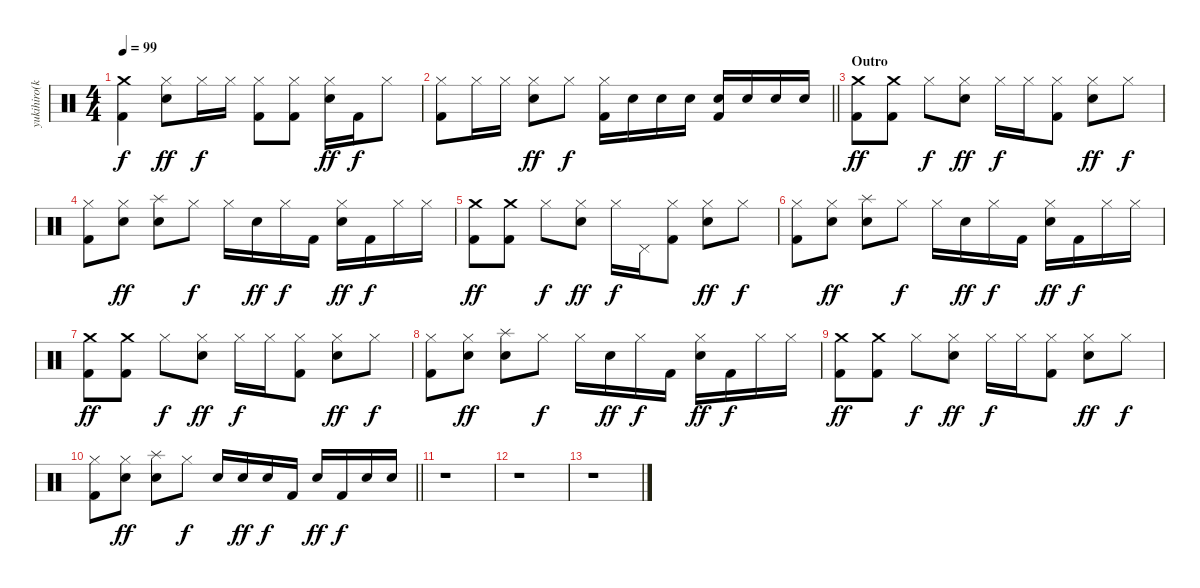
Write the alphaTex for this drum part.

\track ("yukihiro(kami)" "yukihiro(k") {instrument percussion}
\staff {score}
\articulation defaults
\ts (4 4)
\tempo 99
\clef neutral
\ks c
("Crash medium (hit)" "Kick (hit) 2").4{dy f} ("Hi-Hat (closed)" "Snare (hit) 2").8{dy ff} "Hi-Hat (closed)".16{dy f} "Hi-Hat (closed)".16 ("Hi-Hat (closed)" "Kick (hit) 2").8 ("Hi-Hat (closed)" "Kick (hit) 2").8 ("Hi-Hat (closed)" "Snare (hit) 2").16{dy ff} "Kick (hit) 2".16{dy f} "Hi-Hat (closed)".8 |
\barLineRight lightlight
("Hi-Hat (closed)" "Kick (hit) 2").8 "Hi-Hat (closed)".16 "Hi-Hat (closed)".16 ("Hi-Hat (closed)" "Snare (hit) 2").8{dy ff} "Hi-Hat (closed)".8{dy f} ("Hi-Hat (closed)" "Kick (hit) 2").16 "Snare (hit) 2".16 "Snare (hit) 2".16 "Snare (hit) 2".16 ("Snare (hit) 2" "Kick (hit) 2").16 "Snare (hit) 2".16 "Snare (hit) 2".16 "Snare (hit) 2".16 |
\section ("" "Outro")
("Crash medium (hit)" "Kick (hit) 2").8{dy ff} ("Crash medium (hit)" "Kick (hit) 2").8 "Hi-Hat (closed)".8{dy f} ("Hi-Hat (closed)" "Snare (hit) 2").8{dy ff} "Hi-Hat (closed)".16{dy f} "Hi-Hat (closed)".16 ("Hi-Hat (closed)" "Kick (hit) 2").8 ("Hi-Hat (closed)" "Snare (hit) 2").8{dy ff} "Hi-Hat (closed)".8{dy f} |
("Hi-Hat (closed)" "Kick (hit) 2").8 ("Hi-Hat (closed)" "Snare (hit) 2").8{dy ff} ("Splash (hit)" "Snare (hit) 2").8 "Hi-Hat (closed)".8{dy f} "Hi-Hat (closed)".16 "Snare (hit) 2".16{dy ff} "Hi-Hat (closed)".16{dy f} "Kick (hit) 2".16 ("Hi-Hat (closed)" "Snare (hit) 2").16{dy ff} "Kick (hit) 2".16{dy f} "Hi-Hat (closed)".16 "Hi-Hat (closed)".16 |
("Crash medium (hit)" "Kick (hit) 2").8{dy ff} ("Crash medium (hit)" "Kick (hit) 2").8 "Hi-Hat (closed)".8{dy f} ("Hi-Hat (closed)" "Snare (hit) 2").8{dy ff} "Hi-Hat (closed)".16{dy f} "Pedal Hi-Hat (hit)".16 ("Hi-Hat (closed)" "Kick (hit) 2").8 ("Hi-Hat (closed)" "Snare (hit) 2").8{dy ff} "Hi-Hat (closed)".8{dy f} |
("Hi-Hat (closed)" "Kick (hit) 2").8 ("Hi-Hat (closed)" "Snare (hit) 2").8{dy ff} ("Splash (hit)" "Snare (hit) 2").8 "Hi-Hat (closed)".8{dy f} "Hi-Hat (closed)".16 "Snare (hit) 2".16{dy ff} "Hi-Hat (closed)".16{dy f} "Kick (hit) 2".16 ("Hi-Hat (closed)" "Snare (hit) 2").16{dy ff} "Kick (hit) 2".16{dy f} "Hi-Hat (closed)".16 "Hi-Hat (closed)".16 |
("Crash medium (hit)" "Kick (hit) 2").8{dy ff} ("Crash medium (hit)" "Kick (hit) 2").8 "Hi-Hat (closed)".8{dy f} ("Hi-Hat (closed)" "Snare (hit) 2").8{dy ff} "Hi-Hat (closed)".16{dy f} "Hi-Hat (closed)".16 ("Hi-Hat (closed)" "Kick (hit) 2").8 ("Hi-Hat (closed)" "Snare (hit) 2").8{dy ff} "Hi-Hat (closed)".8{dy f} |
("Hi-Hat (closed)" "Kick (hit) 2").8 ("Hi-Hat (closed)" "Snare (hit) 2").8{dy ff} ("Splash (hit)" "Snare (hit) 2").8 "Hi-Hat (closed)".8{dy f} "Hi-Hat (closed)".16 "Snare (hit) 2".16{dy ff} "Hi-Hat (closed)".16{dy f} "Kick (hit) 2".16 ("Hi-Hat (closed)" "Snare (hit) 2").16{dy ff} "Kick (hit) 2".16{dy f} "Hi-Hat (closed)".16 "Hi-Hat (closed)".16 |
("Crash medium (hit)" "Kick (hit) 2").8{dy ff} ("Crash medium (hit)" "Kick (hit) 2").8 "Hi-Hat (closed)".8{dy f} ("Hi-Hat (closed)" "Snare (hit) 2").8{dy ff} "Hi-Hat (closed)".16{dy f} "Hi-Hat (closed)".16 ("Hi-Hat (closed)" "Kick (hit) 2").8 ("Hi-Hat (closed)" "Snare (hit) 2").8{dy ff} "Hi-Hat (closed)".8{dy f} |
\barLineRight lightlight
("Hi-Hat (closed)" "Kick (hit) 2").8 ("Hi-Hat (closed)" "Snare (hit) 2").8{dy ff} ("Splash (hit)" "Snare (hit) 2").8 "Hi-Hat (closed)".8{dy f} "Snare (hit) 2".16 "Snare (hit) 2".16{dy ff} "Snare (hit) 2".16{dy f} "Kick (hit) 2".16 "Snare (hit) 2".16{dy ff} "Kick (hit) 2".16{dy f} "Snare (hit) 2".16 "Snare (hit) 2".16 |
r.1 |
r.1 |
r.1
